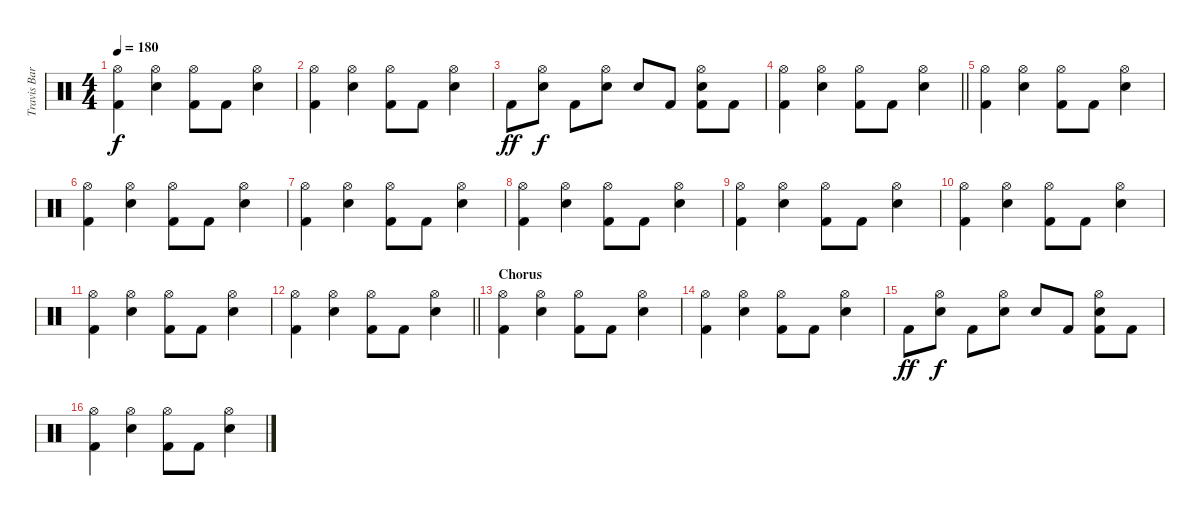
\track ("Travis Barker" "Travis Bar") {instrument percussion}
\staff {score}
\articulation defaults
\ts (4 4)
\tempo 180
\clef neutral
\ks c
("Hi-Hat (open)" "Kick (hit) 2").4{dy f} ("Hi-Hat (open)" "Electric Snare (hit)").4 ("Hi-Hat (open)" "Kick (hit) 2").8 "Kick (hit) 2".8 ("Hi-Hat (open)" "Electric Snare (hit)").4 |
("Hi-Hat (open)" "Kick (hit) 2").4 ("Hi-Hat (open)" "Electric Snare (hit)").4 ("Hi-Hat (open)" "Kick (hit) 2").8 "Kick (hit) 2".8 ("Hi-Hat (open)" "Electric Snare (hit)").4 |
"Kick (hit) 2".8{dy ff} ("Hi-Hat (open)" "Electric Snare (hit)").8{dy f} "Kick (hit) 2".8 ("Hi-Hat (open)" "Electric Snare (hit)").8 "Electric Snare (hit)".8 "Kick (hit) 2".8 ("Hi-Hat (open)" "Electric Snare (hit)" "Kick (hit) 2").8 "Kick (hit) 2".8 |
\barLineRight lightlight
("Hi-Hat (open)" "Kick (hit) 2").4 ("Hi-Hat (open)" "Electric Snare (hit)").4 ("Hi-Hat (open)" "Kick (hit) 2").8 "Kick (hit) 2".8 ("Hi-Hat (open)" "Electric Snare (hit)").4 |
("Hi-Hat (open)" "Kick (hit) 2").4 ("Hi-Hat (open)" "Electric Snare (hit)").4 ("Hi-Hat (open)" "Kick (hit) 2").8 "Kick (hit) 2".8 ("Hi-Hat (open)" "Electric Snare (hit)").4 |
("Hi-Hat (open)" "Kick (hit) 2").4 ("Hi-Hat (open)" "Electric Snare (hit)").4 ("Hi-Hat (open)" "Kick (hit) 2").8 "Kick (hit) 2".8 ("Hi-Hat (open)" "Electric Snare (hit)").4 |
("Hi-Hat (open)" "Kick (hit) 2").4 ("Hi-Hat (open)" "Electric Snare (hit)").4 ("Hi-Hat (open)" "Kick (hit) 2").8 "Kick (hit) 2".8 ("Hi-Hat (open)" "Electric Snare (hit)").4 |
("Hi-Hat (open)" "Kick (hit) 2").4 ("Hi-Hat (open)" "Electric Snare (hit)").4 ("Hi-Hat (open)" "Kick (hit) 2").8 "Kick (hit) 2".8 ("Hi-Hat (open)" "Electric Snare (hit)").4 |
("Hi-Hat (open)" "Kick (hit) 2").4 ("Hi-Hat (open)" "Electric Snare (hit)").4 ("Hi-Hat (open)" "Kick (hit) 2").8 "Kick (hit) 2".8 ("Hi-Hat (open)" "Electric Snare (hit)").4 |
("Hi-Hat (open)" "Kick (hit) 2").4 ("Hi-Hat (open)" "Electric Snare (hit)").4 ("Hi-Hat (open)" "Kick (hit) 2").8 "Kick (hit) 2".8 ("Hi-Hat (open)" "Electric Snare (hit)").4 |
("Hi-Hat (open)" "Kick (hit) 2").4 ("Hi-Hat (open)" "Electric Snare (hit)").4 ("Hi-Hat (open)" "Kick (hit) 2").8 "Kick (hit) 2".8 ("Hi-Hat (open)" "Electric Snare (hit)").4 |
\barLineRight lightlight
("Hi-Hat (open)" "Kick (hit) 2").4 ("Hi-Hat (open)" "Electric Snare (hit)").4 ("Hi-Hat (open)" "Kick (hit) 2").8 "Kick (hit) 2".8 ("Hi-Hat (open)" "Electric Snare (hit)").4 |
\section ("" "Chorus")
("Hi-Hat (open)" "Kick (hit) 2").4 ("Hi-Hat (open)" "Electric Snare (hit)").4 ("Hi-Hat (open)" "Kick (hit) 2").8 "Kick (hit) 2".8 ("Hi-Hat (open)" "Electric Snare (hit)").4 |
("Hi-Hat (open)" "Kick (hit) 2").4 ("Hi-Hat (open)" "Electric Snare (hit)").4 ("Hi-Hat (open)" "Kick (hit) 2").8 "Kick (hit) 2".8 ("Hi-Hat (open)" "Electric Snare (hit)").4 |
"Kick (hit) 2".8{dy ff} ("Hi-Hat (open)" "Electric Snare (hit)").8{dy f} "Kick (hit) 2".8 ("Hi-Hat (open)" "Electric Snare (hit)").8 "Electric Snare (hit)".8 "Kick (hit) 2".8 ("Hi-Hat (open)" "Electric Snare (hit)" "Kick (hit) 2").8 "Kick (hit) 2".8 |
("Hi-Hat (open)" "Kick (hit) 2").4 ("Hi-Hat (open)" "Electric Snare (hit)").4 ("Hi-Hat (open)" "Kick (hit) 2").8 "Kick (hit) 2".8 ("Hi-Hat (open)" "Electric Snare (hit)").4
